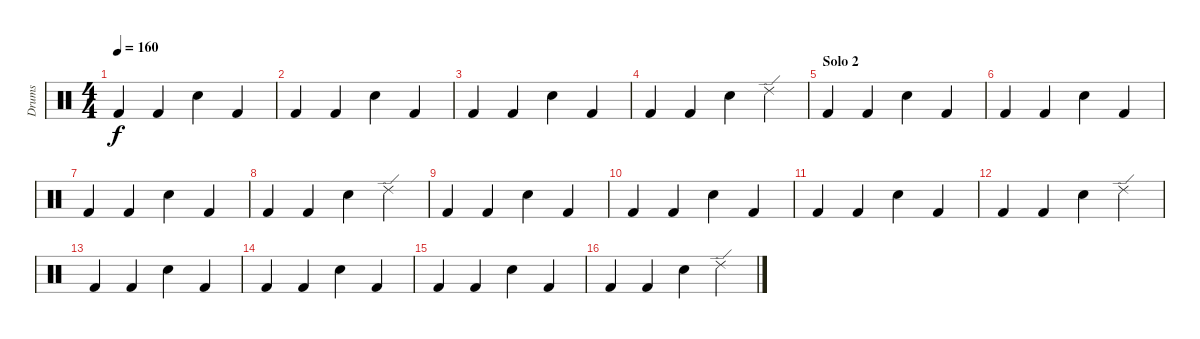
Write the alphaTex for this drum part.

\track ("Drums" "Drums") {instrument percussion}
\staff {score}
\articulation defaults
\ts (4 4)
\tempo 160
\clef neutral
\ks c "Kick (hit) 2".4{dy f} "Kick (hit) 2".4 "Snare (hit) 2".4 "Kick (hit) 2".4
|
"Kick (hit) 2".4 "Kick (hit) 2".4 "Snare (hit) 2".4 "Kick (hit) 2".4 |
"Kick (hit) 2".4 "Kick (hit) 2".4 "Snare (hit) 2".4 "Kick (hit) 2".4 |
"Kick (hit) 2".4 "Kick (hit) 2".4 "Snare (hit) 2".4 "Ride (edge) 2".4 |
\section ("" "Solo 2")
"Kick (hit) 2".4 "Kick (hit) 2".4 "Snare (hit) 2".4 "Kick (hit) 2".4 |
"Kick (hit) 2".4 "Kick (hit) 2".4 "Snare (hit) 2".4 "Kick (hit) 2".4 |
"Kick (hit) 2".4 "Kick (hit) 2".4 "Snare (hit) 2".4 "Kick (hit) 2".4 |
"Kick (hit) 2".4 "Kick (hit) 2".4 "Snare (hit) 2".4 "Ride (edge) 2".4 |
"Kick (hit) 2".4 "Kick (hit) 2".4 "Snare (hit) 2".4 "Kick (hit) 2".4 |
"Kick (hit) 2".4 "Kick (hit) 2".4 "Snare (hit) 2".4 "Kick (hit) 2".4 |
"Kick (hit) 2".4 "Kick (hit) 2".4 "Snare (hit) 2".4 "Kick (hit) 2".4 |
"Kick (hit) 2".4 "Kick (hit) 2".4 "Snare (hit) 2".4 "Ride (edge) 2".4 |
"Kick (hit) 2".4 "Kick (hit) 2".4 "Snare (hit) 2".4 "Kick (hit) 2".4 |
"Kick (hit) 2".4 "Kick (hit) 2".4 "Snare (hit) 2".4 "Kick (hit) 2".4 |
"Kick (hit) 2".4 "Kick (hit) 2".4 "Snare (hit) 2".4 "Kick (hit) 2".4 |
"Kick (hit) 2".4 "Kick (hit) 2".4 "Snare (hit) 2".4 "Ride (edge) 2".4
